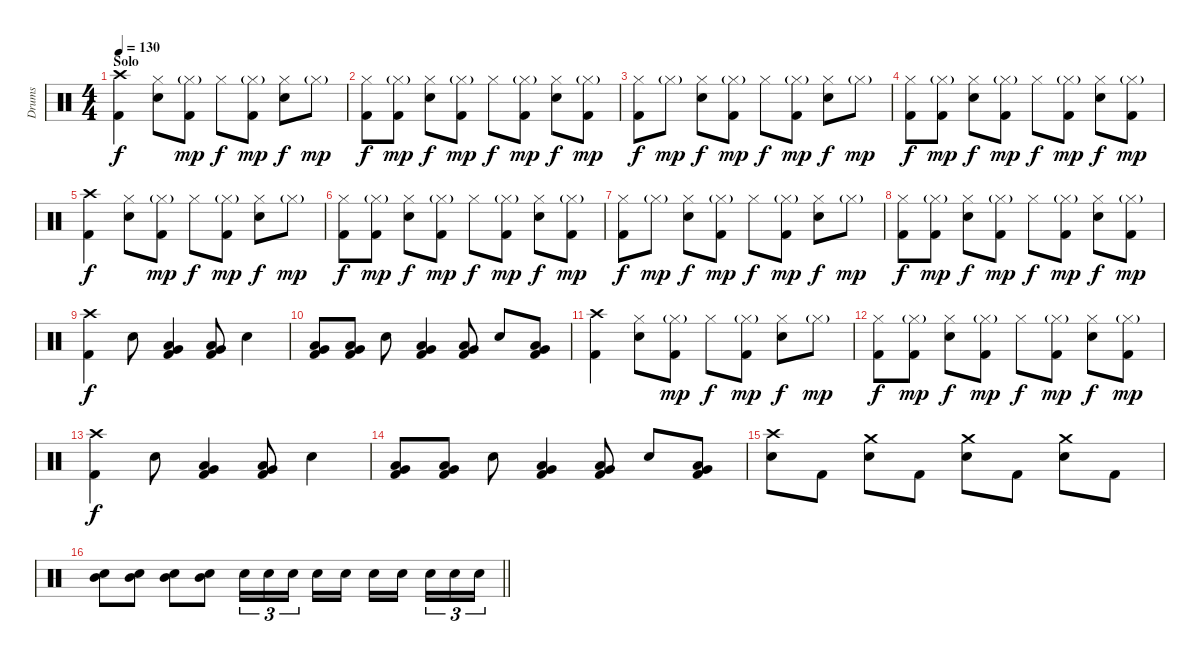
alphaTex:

\track ("Drums" "Drums") {instrument percussion}
\staff {score}
\articulation defaults
\ts (4 4)
\section ("" "Solo")
\tempo 130
\clef neutral
\ks c
("Crash high (hit)" "Kick (hit) 2").4{dy f} ("Hi-Hat (closed)" "Snare (hit) 2").8 ("Hi-Hat (closed)"{g} "Kick (hit) 2").8{dy mp} "Hi-Hat (closed)".8{dy f} ("Hi-Hat (closed)"{g} "Kick (hit) 2").8{dy mp} ("Hi-Hat (closed)" "Snare (hit) 2").8{dy f} "Hi-Hat (closed)"{g}.8{dy mp} |
("Hi-Hat (closed)" "Kick (hit) 2").8{dy f} ("Hi-Hat (closed)"{g} "Kick (hit) 2").8{dy mp} ("Hi-Hat (closed)" "Snare (hit) 2").8{dy f} ("Hi-Hat (closed)"{g} "Kick (hit) 2").8{dy mp} "Hi-Hat (closed)".8{dy f} ("Hi-Hat (closed)"{g} "Kick (hit) 2").8{dy mp} ("Hi-Hat (closed)" "Snare (hit) 2").8{dy f} ("Hi-Hat (closed)"{g} "Kick (hit) 2").8{dy mp} |
("Hi-Hat (closed)" "Kick (hit) 2").8{dy f} "Hi-Hat (closed)"{g}.8{dy mp} ("Hi-Hat (closed)" "Snare (hit) 2").8{dy f} ("Hi-Hat (closed)"{g} "Kick (hit) 2").8{dy mp} "Hi-Hat (closed)".8{dy f} ("Hi-Hat (closed)"{g} "Kick (hit) 2").8{dy mp} ("Hi-Hat (closed)" "Snare (hit) 2").8{dy f} "Hi-Hat (closed)"{g}.8{dy mp} |
("Hi-Hat (closed)" "Kick (hit) 2").8{dy f} ("Hi-Hat (closed)"{g} "Kick (hit) 2").8{dy mp} ("Hi-Hat (closed)" "Snare (hit) 2").8{dy f} ("Hi-Hat (closed)"{g} "Kick (hit) 2").8{dy mp} "Hi-Hat (closed)".8{dy f} ("Hi-Hat (closed)"{g} "Kick (hit) 2").8{dy mp} ("Hi-Hat (closed)" "Snare (hit) 2").8{dy f} ("Hi-Hat (closed)"{g} "Kick (hit) 2").8{dy mp} |
("Crash high (hit)" "Kick (hit) 2").4{dy f} ("Hi-Hat (closed)" "Snare (hit) 2").8 ("Hi-Hat (closed)"{g} "Kick (hit) 2").8{dy mp} "Hi-Hat (closed)".8{dy f} ("Hi-Hat (closed)"{g} "Kick (hit) 2").8{dy mp} ("Hi-Hat (closed)" "Snare (hit) 2").8{dy f} "Hi-Hat (closed)"{g}.8{dy mp} |
("Hi-Hat (closed)" "Kick (hit) 2").8{dy f} ("Hi-Hat (closed)"{g} "Kick (hit) 2").8{dy mp} ("Hi-Hat (closed)" "Snare (hit) 2").8{dy f} ("Hi-Hat (closed)"{g} "Kick (hit) 2").8{dy mp} "Hi-Hat (closed)".8{dy f} ("Hi-Hat (closed)"{g} "Kick (hit) 2").8{dy mp} ("Hi-Hat (closed)" "Snare (hit) 2").8{dy f} ("Hi-Hat (closed)"{g} "Kick (hit) 2").8{dy mp} |
("Hi-Hat (closed)" "Kick (hit) 2").8{dy f} "Hi-Hat (closed)"{g}.8{dy mp} ("Hi-Hat (closed)" "Snare (hit) 2").8{dy f} ("Hi-Hat (closed)"{g} "Kick (hit) 2").8{dy mp} "Hi-Hat (closed)".8{dy f} ("Hi-Hat (closed)"{g} "Kick (hit) 2").8{dy mp} ("Hi-Hat (closed)" "Snare (hit) 2").8{dy f} "Hi-Hat (closed)"{g}.8{dy mp} |
("Hi-Hat (closed)" "Kick (hit) 2").8{dy f} ("Hi-Hat (closed)"{g} "Kick (hit) 2").8{dy mp} ("Hi-Hat (closed)" "Snare (hit) 2").8{dy f} ("Hi-Hat (closed)"{g} "Kick (hit) 2").8{dy mp} "Hi-Hat (closed)".8{dy f} ("Hi-Hat (closed)"{g} "Kick (hit) 2").8{dy mp} ("Hi-Hat (closed)" "Snare (hit) 2").8{dy f} ("Hi-Hat (closed)"{g} "Kick (hit) 2").8{dy mp} |
("Crash high (hit)" "Kick (hit) 2").4{dy f} "Snare (hit) 2".8 ("Low Tom (hit)" "Very Low Tom (hit)" "Kick (hit) 2").4 ("Low Tom (hit)" "Very Low Tom (hit)" "Kick (hit) 2").8 "Snare (hit) 2".4 |
("Low Floor Tom (hit)" "Very Low Tom (hit)" "Kick (hit) 2").8 ("Low Floor Tom (hit)" "Very Low Tom (hit)" "Kick (hit) 2").8 "Snare (hit) 2".8 ("Low Tom (hit)" "Very Low Tom (hit)" "Kick (hit) 2").4 ("Low Tom (hit)" "Very Low Tom (hit)" "Kick (hit) 2").8 "Snare (hit) 2".8 ("Low Tom (hit)" "Very Low Tom (hit)" "Kick (hit) 2").8 |
("Crash high (hit)" "Kick (hit) 2").4 ("Hi-Hat (closed)" "Snare (hit) 2").8 ("Hi-Hat (closed)"{g} "Kick (hit) 2").8{dy mp} "Hi-Hat (closed)".8{dy f} ("Hi-Hat (closed)"{g} "Kick (hit) 2").8{dy mp} ("Hi-Hat (closed)" "Snare (hit) 2").8{dy f} "Hi-Hat (closed)"{g}.8{dy mp} |
("Hi-Hat (closed)" "Kick (hit) 2").8{dy f} ("Hi-Hat (closed)"{g} "Kick (hit) 2").8{dy mp} ("Hi-Hat (closed)" "Snare (hit) 2").8{dy f} ("Hi-Hat (closed)"{g} "Kick (hit) 2").8{dy mp} "Hi-Hat (closed)".8{dy f} ("Hi-Hat (closed)"{g} "Kick (hit) 2").8{dy mp} ("Hi-Hat (closed)" "Snare (hit) 2").8{dy f} ("Hi-Hat (closed)"{g} "Kick (hit) 2").8{dy mp} |
("Crash high (hit)" "Kick (hit) 2").4{dy f} "Snare (hit) 2".8 ("Low Tom (hit)" "Very Low Tom (hit)" "Kick (hit) 2").4 ("Low Tom (hit)" "Very Low Tom (hit)" "Kick (hit) 2").8 "Snare (hit) 2".4 |
("Low Floor Tom (hit)" "Very Low Tom (hit)" "Kick (hit) 2").8 ("Low Floor Tom (hit)" "Very Low Tom (hit)" "Kick (hit) 2").8 "Snare (hit) 2".8 ("Low Tom (hit)" "Very Low Tom (hit)" "Kick (hit) 2").4 ("Low Tom (hit)" "Very Low Tom (hit)" "Kick (hit) 2").8 "Snare (hit) 2".8 ("Low Tom (hit)" "Very Low Tom (hit)" "Kick (hit) 2").8 |
("Crash high (hit)" "Snare (hit) 2").8 "Kick (hit) 2".8 ("Crash medium (hit)" "Snare (hit) 2").8 "Kick (hit) 2".8 ("Crash medium (hit)" "Snare (hit) 2").8 "Kick (hit) 2".8 ("Crash medium (hit)" "Snare (hit) 2").8 "Kick (hit) 2".8 |
\barLineRight lightlight
("Snare (hit) 2" "Mid Tom (hit)").8 ("Snare (hit) 2" "Mid Tom (hit)").8 ("Snare (hit) 2" "Mid Tom (hit)").8 ("Snare (hit) 2" "Mid Tom (hit)").8 "Snare (hit) 2".16{tu (3 2)} "Snare (hit) 2".16{tu (3 2)} "Snare (hit) 2".16{tu (3 2) beam splitsecondary} "Snare (hit) 2".16 "Snare (hit) 2".16 "Snare (hit) 2".16 "Snare (hit) 2".16{beam splitsecondary} "Snare (hit) 2".16{tu (3 2)} "Snare (hit) 2".16{tu (3 2)} "Snare (hit) 2".16{tu (3 2)}
